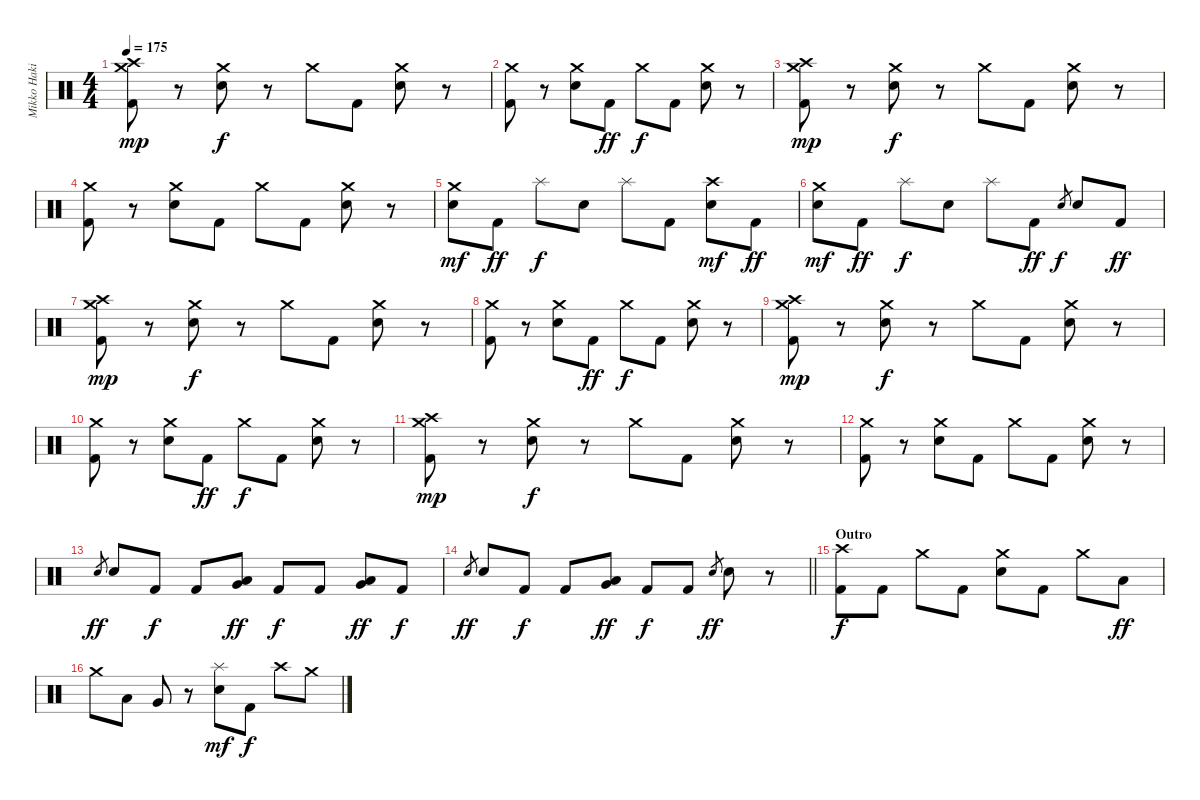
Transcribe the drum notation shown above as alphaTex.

\track ("Mikko Hakila - Drums" "Mikko Haki") {instrument percussion}
\staff {score}
\articulation defaults
\ts (4 4)
\tempo 175
\clef neutral
\ks c
("Crash medium (hit)" "Crash high (hit)" "Kick (hit) 2").8{dy mp} r.8 ("Crash medium (hit)" "Electric Snare (hit)").8{dy f} r.8 "Crash medium (hit)".8 "Kick (hit) 2".8 ("Crash medium (hit)" "Electric Snare (hit)").8 r.8 |
("Crash medium (hit)" "Kick (hit) 2").8 r.8 ("Crash medium (hit)" "Electric Snare (hit)").8 "Kick (hit) 2".8{dy ff} "Crash medium (hit)".8{dy f} "Kick (hit) 2".8 ("Crash medium (hit)" "Electric Snare (hit)").8 r.8 |
("Crash medium (hit)" "Crash high (hit)" "Kick (hit) 2").8{dy mp} r.8 ("Crash medium (hit)" "Electric Snare (hit)").8{dy f} r.8 "Crash medium (hit)".8 "Kick (hit) 2".8 ("Crash medium (hit)" "Electric Snare (hit)").8 r.8 |
("Crash medium (hit)" "Kick (hit) 2").8 r.8 ("Crash medium (hit)" "Electric Snare (hit)").8 "Kick (hit) 2".8 "Crash medium (hit)".8 "Kick (hit) 2".8 ("Crash medium (hit)" "Electric Snare (hit)").8 r.8 |
("Crash medium (hit)" "Electric Snare (hit)").8{dy mf} "Kick (hit) 2".8{dy ff} "Splash (hit)".8{dy f} "Electric Snare (hit)".8 "Splash (hit)".8 "Kick (hit) 2".8 ("Crash high (hit)" "Electric Snare (hit)").8{dy mf} "Kick (hit) 2".8{dy ff} |
("Crash medium (hit)" "Electric Snare (hit)").8{dy mf} "Kick (hit) 2".8{dy ff} "Splash (hit)".8{dy f} "Electric Snare (hit)".8 "Splash (hit)".8 "Kick (hit) 2".8{dy ff} "Electric Snare (hit)".8{gr dy f} "Electric Snare (hit)".8 "Kick (hit) 2".8{dy ff} |
("Crash medium (hit)" "Crash high (hit)" "Kick (hit) 2").8{dy mp} r.8 ("Crash medium (hit)" "Electric Snare (hit)").8{dy f} r.8 "Crash medium (hit)".8 "Kick (hit) 2".8 ("Crash medium (hit)" "Electric Snare (hit)").8 r.8 |
("Crash medium (hit)" "Kick (hit) 2").8 r.8 ("Crash medium (hit)" "Electric Snare (hit)").8 "Kick (hit) 2".8{dy ff} "Crash medium (hit)".8{dy f} "Kick (hit) 2".8 ("Crash medium (hit)" "Electric Snare (hit)").8 r.8 |
("Crash medium (hit)" "Crash high (hit)" "Kick (hit) 2").8{dy mp} r.8 ("Crash medium (hit)" "Electric Snare (hit)").8{dy f} r.8 "Crash medium (hit)".8 "Kick (hit) 2".8 ("Crash medium (hit)" "Electric Snare (hit)").8 r.8 |
("Crash medium (hit)" "Kick (hit) 2").8 r.8 ("Crash medium (hit)" "Electric Snare (hit)").8 "Kick (hit) 2".8{dy ff} "Crash medium (hit)".8{dy f} "Kick (hit) 2".8 ("Crash medium (hit)" "Electric Snare (hit)").8 r.8 |
("Crash medium (hit)" "Crash high (hit)" "Kick (hit) 2").8{dy mp} r.8 ("Crash medium (hit)" "Electric Snare (hit)").8{dy f} r.8 "Crash medium (hit)".8 "Kick (hit) 2".8 ("Crash medium (hit)" "Electric Snare (hit)").8 r.8 |
("Crash medium (hit)" "Kick (hit) 2").8 r.8 ("Crash medium (hit)" "Electric Snare (hit)").8 "Kick (hit) 2".8 "Crash medium (hit)".8 "Kick (hit) 2".8 ("Crash medium (hit)" "Electric Snare (hit)").8 r.8 |
"Electric Snare (hit)".8{gr dy ff} "Electric Snare (hit)".8 "Kick (hit) 2".8{dy f} "Kick (hit) 2".8 ("Low Tom (hit)" "Very Low Tom (hit)").8{dy ff} "Kick (hit) 2".8{dy f} "Kick (hit) 2".8 ("Low Tom (hit)" "Very Low Tom (hit)").8{dy ff} "Kick (hit) 2".8{dy f} |
\barLineRight lightlight "Electric Snare (hit)".8{gr dy ff} "Electric Snare (hit)".8 "Kick (hit) 2".8{dy f} "Kick (hit) 2".8
("Low Tom (hit)" "Very Low Tom (hit)").8{dy ff} "Kick (hit) 2".8{dy f} "Kick (hit) 2".8 "Electric Snare (hit)".8{gr dy ff} "Electric Snare (hit)".8 r.8 |
\section ("" "Outro")
("Crash high (hit)" "Kick (hit) 2").8{dy f} "Kick (hit) 2".8 "Crash medium (hit)".8 "Kick (hit) 2".8 ("Crash medium (hit)" "Electric Snare (hit)").8 "Kick (hit) 2".8 "Crash medium (hit)".8 "Low Tom (hit)".8{dy ff} |
"Crash medium (hit)".8 "Low Tom (hit)".8 "Very Low Tom (hit)".8 r.8 ("Splash (hit)" "Electric Snare (hit)").8{dy mf} "Kick (hit) 2".8{dy f} "Crash high (hit)".8 "Crash medium (hit)".8
